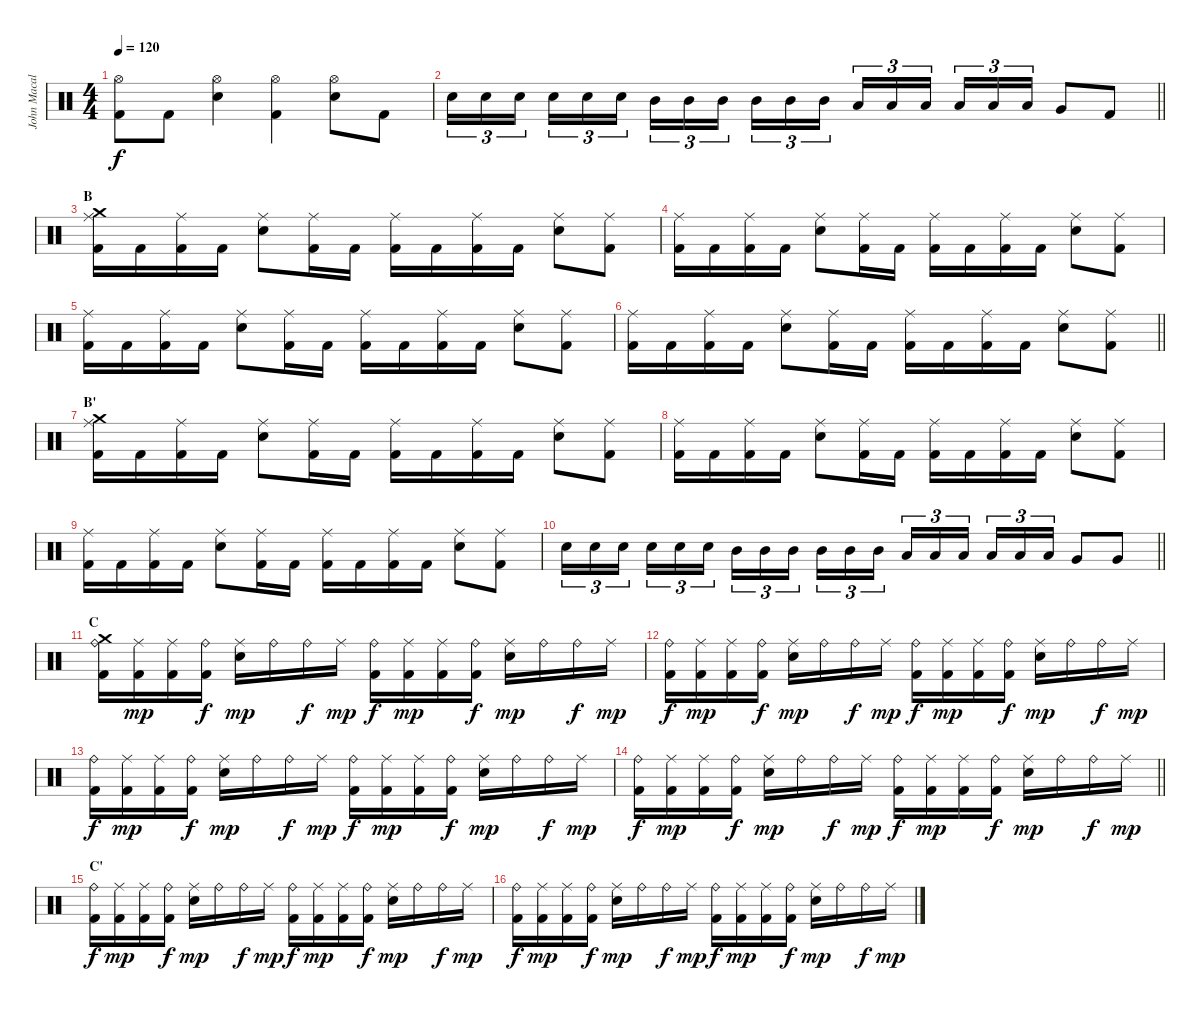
\track ("John Macaluso" "John Macal") {instrument percussion}
\staff {score}
\articulation defaults
\ts (4 4)
\tempo 120
\clef neutral
\ks c
("Hi-Hat (open)" "Kick (hit) 2").8{dy f} "Kick (hit) 2".8 ("Hi-Hat (open)" "Snare (hit) 2").4 ("Hi-Hat (open)" "Kick (hit) 2").4 ("Hi-Hat (open)" "Snare (hit) 2").8 "Kick (hit) 2".8 |
\barLineRight lightlight "Snare (hit) 2".16{tu (3 2)} "Snare (hit) 2".16{tu (3 2)} "Snare (hit) 2".16{tu (3 2) beam splitsecondary} "Snare (hit) 2".16{tu (3 2)} "Snare (hit) 2".16{tu (3 2)} "Snare (hit) 2".16{tu (3 2)} "Mid Tom (hit)".16{tu (3 2)} "Mid Tom (hit)".16{tu (3 2)} "Mid Tom (hit)".16{tu (3 2) beam splitsecondary} "Mid Tom (hit)".16{tu (3 2)} "Mid Tom (hit)".16{tu (3 2)} "Mid Tom (hit)".16{tu (3 2)} "Low Tom (hit)".16{tu (3 2)} "Low Tom (hit)".16{tu (3 2)} "Low Tom (hit)".16{tu (3 2) beam splitsecondary} "Low Tom (hit)".16{tu (3 2)} "Low Tom (hit)".16{tu (3 2)} "Low Tom (hit)".16{tu (3 2)} "Very Low Tom (hit)".8 "Kick (hit) 2".8
|
\section ("" "B")
("Crash medium (hit)" "Ride (middle)" "Kick (hit) 2").16 "Kick (hit) 2".16 ("Ride (middle)" "Kick (hit) 2").16 "Kick (hit) 2".16 ("Ride (middle)" "Snare (hit) 2").8 ("Ride (middle)" "Kick (hit) 2").16 "Kick (hit) 2".16 ("Ride (middle)" "Kick (hit) 2").16 "Kick (hit) 2".16 ("Ride (middle)" "Kick (hit) 2").16 "Kick (hit) 2".16 ("Ride (middle)" "Snare (hit) 2").8 ("Ride (middle)" "Kick (hit) 2").8 |
("Ride (middle)" "Kick (hit) 2").16 "Kick (hit) 2".16 ("Ride (middle)" "Kick (hit) 2").16 "Kick (hit) 2".16 ("Ride (middle)" "Snare (hit) 2").8 ("Ride (middle)" "Kick (hit) 2").16 "Kick (hit) 2".16 ("Ride (middle)" "Kick (hit) 2").16 "Kick (hit) 2".16 ("Ride (middle)" "Kick (hit) 2").16 "Kick (hit) 2".16 ("Ride (middle)" "Snare (hit) 2").8 ("Ride (middle)" "Kick (hit) 2").8 |
("Ride (middle)" "Kick (hit) 2").16 "Kick (hit) 2".16 ("Ride (middle)" "Kick (hit) 2").16 "Kick (hit) 2".16 ("Ride (middle)" "Snare (hit) 2").8 ("Ride (middle)" "Kick (hit) 2").16 "Kick (hit) 2".16 ("Ride (middle)" "Kick (hit) 2").16 "Kick (hit) 2".16 ("Ride (middle)" "Kick (hit) 2").16 "Kick (hit) 2".16 ("Ride (middle)" "Snare (hit) 2").8 ("Ride (middle)" "Kick (hit) 2").8 |
\barLineRight lightlight
("Ride (middle)" "Kick (hit) 2").16 "Kick (hit) 2".16 ("Ride (middle)" "Kick (hit) 2").16 "Kick (hit) 2".16 ("Ride (middle)" "Snare (hit) 2").8 ("Ride (middle)" "Kick (hit) 2").16 "Kick (hit) 2".16 ("Ride (middle)" "Kick (hit) 2").16 "Kick (hit) 2".16 ("Ride (middle)" "Kick (hit) 2").16 "Kick (hit) 2".16 ("Ride (middle)" "Snare (hit) 2").8 ("Ride (middle)" "Kick (hit) 2").8 |
\section ("" "B'")
("Crash medium (hit)" "Ride (middle)" "Kick (hit) 2").16 "Kick (hit) 2".16 ("Ride (middle)" "Kick (hit) 2").16 "Kick (hit) 2".16 ("Ride (middle)" "Snare (hit) 2").8 ("Ride (middle)" "Kick (hit) 2").16 "Kick (hit) 2".16 ("Ride (middle)" "Kick (hit) 2").16 "Kick (hit) 2".16 ("Ride (middle)" "Kick (hit) 2").16 "Kick (hit) 2".16 ("Ride (middle)" "Snare (hit) 2").8 ("Ride (middle)" "Kick (hit) 2").8 |
("Ride (middle)" "Kick (hit) 2").16 "Kick (hit) 2".16 ("Ride (middle)" "Kick (hit) 2").16 "Kick (hit) 2".16 ("Ride (middle)" "Snare (hit) 2").8 ("Ride (middle)" "Kick (hit) 2").16 "Kick (hit) 2".16 ("Ride (middle)" "Kick (hit) 2").16 "Kick (hit) 2".16 ("Ride (middle)" "Kick (hit) 2").16 "Kick (hit) 2".16 ("Ride (middle)" "Snare (hit) 2").8 ("Ride (middle)" "Kick (hit) 2").8 |
("Ride (middle)" "Kick (hit) 2").16 "Kick (hit) 2".16 ("Ride (middle)" "Kick (hit) 2").16 "Kick (hit) 2".16 ("Ride (middle)" "Snare (hit) 2").8 ("Ride (middle)" "Kick (hit) 2").16 "Kick (hit) 2".16 ("Ride (middle)" "Kick (hit) 2").16 "Kick (hit) 2".16 ("Ride (middle)" "Kick (hit) 2").16 "Kick (hit) 2".16 ("Ride (middle)" "Snare (hit) 2").8 ("Ride (middle)" "Kick (hit) 2").8 |
\barLineRight lightlight "Snare (hit) 2".16{tu (3 2)} "Snare (hit) 2".16{tu (3 2)} "Snare (hit) 2".16{tu (3 2) beam splitsecondary} "Snare (hit) 2".16{tu (3 2)} "Snare (hit) 2".16{tu (3 2)} "Snare (hit) 2".16{tu (3 2)} "Mid Tom (hit)".16{tu (3 2)} "Mid Tom (hit)".16{tu (3 2)} "Mid Tom (hit)".16{tu (3 2) beam splitsecondary} "Mid Tom (hit)".16{tu (3 2)} "Mid Tom (hit)".16{tu (3 2)} "Mid Tom (hit)".16{tu (3 2)} "Low Tom (hit)".16{tu (3 2)} "Low Tom (hit)".16{tu (3 2)} "Low Tom (hit)".16{tu (3 2) beam splitsecondary} "Low Tom (hit)".16{tu (3 2)} "Low Tom (hit)".16{tu (3 2)} "Low Tom (hit)".16{tu (3 2)} "Very Low Tom (hit)".8 "Very Low Tom (hit)".8
|
\section ("" "C")
("Crash medium (hit)" "Ride (bell)" "Kick (hit) 2").16 ("Ride (middle)" "Kick (hit) 2").16{dy mp} ("Ride (middle)" "Kick (hit) 2").16 ("Ride (bell)" "Kick (hit) 2").16{dy f} ("Ride (middle)" "Snare (hit) 2").16{dy mp} "Ride (bell)".16 "Ride (bell)".16{dy f} "Ride (middle)".16{dy mp} ("Ride (bell)" "Kick (hit) 2").16{dy f} ("Ride (middle)" "Kick (hit) 2").16{dy mp} ("Ride (middle)" "Kick (hit) 2").16 ("Ride (bell)" "Kick (hit) 2").16{dy f} ("Ride (middle)" "Snare (hit) 2").16{dy mp} "Ride (bell)".16 "Ride (bell)".16{dy f} "Ride (middle)".16{dy mp} |
("Ride (bell)" "Kick (hit) 2").16{dy f} ("Ride (middle)" "Kick (hit) 2").16{dy mp} ("Ride (middle)" "Kick (hit) 2").16 ("Ride (bell)" "Kick (hit) 2").16{dy f} ("Ride (middle)" "Snare (hit) 2").16{dy mp} "Ride (bell)".16 "Ride (bell)".16{dy f} "Ride (middle)".16{dy mp} ("Ride (bell)" "Kick (hit) 2").16{dy f} ("Ride (middle)" "Kick (hit) 2").16{dy mp} ("Ride (middle)" "Kick (hit) 2").16 ("Ride (bell)" "Kick (hit) 2").16{dy f} ("Ride (middle)" "Snare (hit) 2").16{dy mp} "Ride (bell)".16 "Ride (bell)".16{dy f} "Ride (middle)".16{dy mp} |
("Ride (bell)" "Kick (hit) 2").16{dy f} ("Ride (middle)" "Kick (hit) 2").16{dy mp} ("Ride (middle)" "Kick (hit) 2").16 ("Ride (bell)" "Kick (hit) 2").16{dy f} ("Ride (middle)" "Snare (hit) 2").16{dy mp} "Ride (bell)".16 "Ride (bell)".16{dy f} "Ride (middle)".16{dy mp} ("Ride (bell)" "Kick (hit) 2").16{dy f} ("Ride (middle)" "Kick (hit) 2").16{dy mp} ("Ride (middle)" "Kick (hit) 2").16 ("Ride (bell)" "Kick (hit) 2").16{dy f} ("Ride (middle)" "Snare (hit) 2").16{dy mp} "Ride (bell)".16 "Ride (bell)".16{dy f} "Ride (middle)".16{dy mp} |
\barLineRight lightlight
("Ride (bell)" "Kick (hit) 2").16{dy f} ("Ride (middle)" "Kick (hit) 2").16{dy mp} ("Ride (middle)" "Kick (hit) 2").16 ("Ride (bell)" "Kick (hit) 2").16{dy f} ("Ride (middle)" "Snare (hit) 2").16{dy mp} "Ride (bell)".16 "Ride (bell)".16{dy f} "Ride (middle)".16{dy mp} ("Ride (bell)" "Kick (hit) 2").16{dy f} ("Ride (middle)" "Kick (hit) 2").16{dy mp} ("Ride (middle)" "Kick (hit) 2").16 ("Ride (bell)" "Kick (hit) 2").16{dy f} ("Ride (middle)" "Snare (hit) 2").16{dy mp} "Ride (bell)".16 "Ride (bell)".16{dy f} "Ride (middle)".16{dy mp} |
\section ("" "C'")
("Ride (bell)" "Kick (hit) 2").16{dy f} ("Ride (middle)" "Kick (hit) 2").16{dy mp} ("Ride (middle)" "Kick (hit) 2").16 ("Ride (bell)" "Kick (hit) 2").16{dy f} ("Ride (middle)" "Snare (hit) 2").16{dy mp} "Ride (bell)".16 "Ride (bell)".16{dy f} "Ride (middle)".16{dy mp} ("Ride (bell)" "Kick (hit) 2").16{dy f} ("Ride (middle)" "Kick (hit) 2").16{dy mp} ("Ride (middle)" "Kick (hit) 2").16 ("Ride (bell)" "Kick (hit) 2").16{dy f} ("Ride (middle)" "Snare (hit) 2").16{dy mp} "Ride (bell)".16 "Ride (bell)".16{dy f} "Ride (middle)".16{dy mp} |
("Ride (bell)" "Kick (hit) 2").16{dy f} ("Ride (middle)" "Kick (hit) 2").16{dy mp} ("Ride (middle)" "Kick (hit) 2").16 ("Ride (bell)" "Kick (hit) 2").16{dy f} ("Ride (middle)" "Snare (hit) 2").16{dy mp} "Ride (bell)".16 "Ride (bell)".16{dy f} "Ride (middle)".16{dy mp} ("Ride (bell)" "Kick (hit) 2").16{dy f} ("Ride (middle)" "Kick (hit) 2").16{dy mp} ("Ride (middle)" "Kick (hit) 2").16 ("Ride (bell)" "Kick (hit) 2").16{dy f} ("Ride (middle)" "Snare (hit) 2").16{dy mp} "Ride (bell)".16 "Ride (bell)".16{dy f} "Ride (middle)".16{dy mp}
